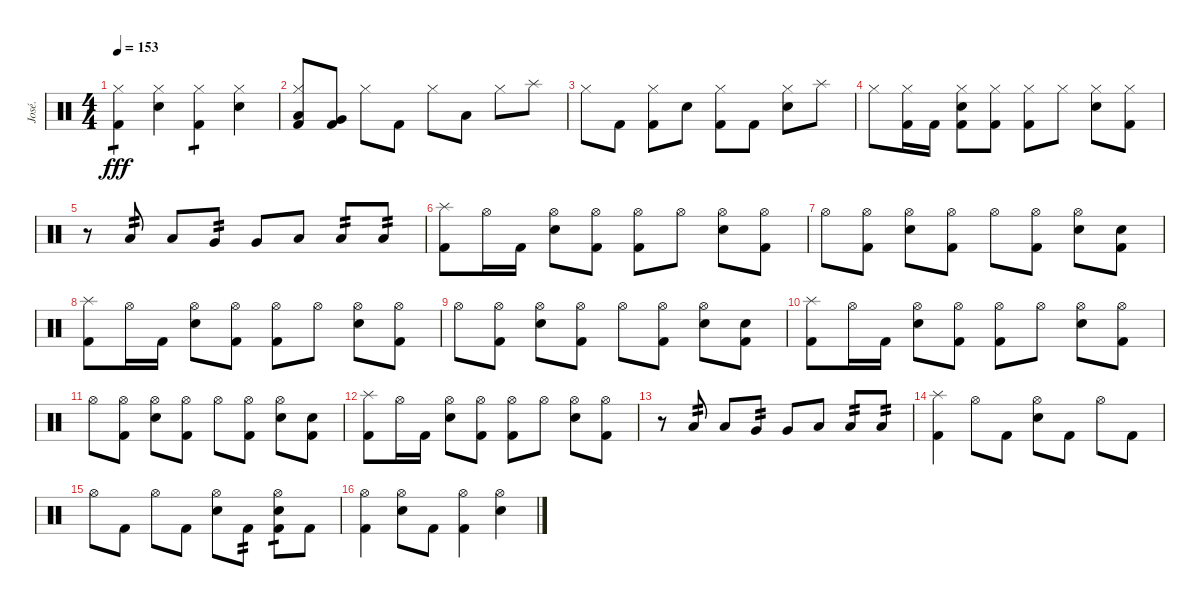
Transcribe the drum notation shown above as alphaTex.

\track ("José." "José.") {instrument percussion}
\staff {score}
\articulation defaults
\ts (4 4)
\tempo 153
\clef neutral
\ks c
("Kick (hit) 2" "Hi-Hat (closed)").4{tp 1 dy fff} ("Snare (hit) 2" "Hi-Hat (closed)").4 ("Kick (hit) 2" "Hi-Hat (closed)").4{tp 1} ("Snare (hit) 2" "Hi-Hat (closed)").4 |
("Kick (hit) 2" "Low Floor Tom (hit)" "Hi-Hat (closed)").8 ("Kick (hit) 2" "Very Low Tom (hit)").8 "Hi-Hat (closed)".8 "Kick (hit) 2".8 "Hi-Hat (closed)".8 "Low Floor Tom (hit)".8 "Hi-Hat (closed)".8 "Splash (hit)".8 |
"Hi-Hat (closed)".8 "Kick (hit) 2".8 ("Kick (hit) 2" "Hi-Hat (closed)").8 "Snare (hit) 2".8 ("Kick (hit) 2" "Hi-Hat (closed)").8 "Kick (hit) 2".8 ("Snare (hit) 2" "Hi-Hat (closed)").8 "Splash (hit)".8 |
"Hi-Hat (closed)".8 ("Kick (hit) 2" "Hi-Hat (closed)").16 "Kick (hit) 2".16 ("Kick (hit) 2" "Snare (hit) 2" "Hi-Hat (closed)").8 ("Kick (hit) 2" "Hi-Hat (closed)").8 ("Kick (hit) 2" "Hi-Hat (closed)").8 "Hi-Hat (closed)".8 ("Snare (hit) 2" "Hi-Hat (closed)").8 ("Kick (hit) 2" "Hi-Hat (closed)").8 |
r.8 "Low Tom (hit)".8{tp 2} "Low Tom (hit)".8 "Very Low Tom (hit)".8{tp 2} "Very Low Tom (hit)".8 "Low Floor Tom (hit)".8 "Low Floor Tom (hit)".8{tp 2} "Low Floor Tom (hit)".8{tp 2} |
("Kick (hit) 2" "Splash (hit)").8 "Hi-Hat (open)".16 "Kick (hit) 2".16 ("Snare (hit) 2" "Hi-Hat (open)").8 ("Kick (hit) 2" "Hi-Hat (open)").8 ("Kick (hit) 2" "Hi-Hat (open)").8 "Hi-Hat (open)".8 ("Snare (hit) 2" "Hi-Hat (open)").8 ("Kick (hit) 2" "Hi-Hat (open)").8 |
"Hi-Hat (open)".8 ("Kick (hit) 2" "Hi-Hat (open)").8 ("Snare (hit) 2" "Hi-Hat (open)").8 ("Kick (hit) 2" "Hi-Hat (open)").8 "Hi-Hat (open)".8 ("Kick (hit) 2" "Hi-Hat (open)").8 ("Snare (hit) 2" "Hi-Hat (open)").8 ("Kick (hit) 2" "Hand Clap (hit)").8 |
("Kick (hit) 2" "Splash (hit)").8 "Hi-Hat (open)".16 "Kick (hit) 2".16 ("Snare (hit) 2" "Hi-Hat (open)").8 ("Kick (hit) 2" "Hi-Hat (open)").8 ("Kick (hit) 2" "Hi-Hat (open)").8 "Hi-Hat (open)".8 ("Snare (hit) 2" "Hi-Hat (open)").8 ("Kick (hit) 2" "Hi-Hat (open)").8 |
"Hi-Hat (open)".8 ("Kick (hit) 2" "Hi-Hat (open)").8 ("Snare (hit) 2" "Hi-Hat (open)").8 ("Kick (hit) 2" "Hi-Hat (open)").8 "Hi-Hat (open)".8 ("Kick (hit) 2" "Hi-Hat (open)").8 ("Snare (hit) 2" "Hi-Hat (open)").8 ("Kick (hit) 2" "Hand Clap (hit)").8 |
("Kick (hit) 2" "Splash (hit)").8 "Hi-Hat (open)".16 "Kick (hit) 2".16 ("Snare (hit) 2" "Hi-Hat (open)").8 ("Kick (hit) 2" "Hi-Hat (open)").8 ("Kick (hit) 2" "Hi-Hat (open)").8 "Hi-Hat (open)".8 ("Snare (hit) 2" "Hi-Hat (open)").8 ("Kick (hit) 2" "Hi-Hat (open)").8 |
"Hi-Hat (open)".8 ("Kick (hit) 2" "Hi-Hat (open)").8 ("Snare (hit) 2" "Hi-Hat (open)").8 ("Kick (hit) 2" "Hi-Hat (open)").8 "Hi-Hat (open)".8 ("Kick (hit) 2" "Hi-Hat (open)").8 ("Snare (hit) 2" "Hi-Hat (open)").8 ("Kick (hit) 2" "Hand Clap (hit)").8 |
("Kick (hit) 2" "Splash (hit)").8 "Hi-Hat (open)".16 "Kick (hit) 2".16 ("Snare (hit) 2" "Hi-Hat (open)").8 ("Kick (hit) 2" "Hi-Hat (open)").8 ("Kick (hit) 2" "Hi-Hat (open)").8 "Hi-Hat (open)".8 ("Snare (hit) 2" "Hi-Hat (open)").8 ("Kick (hit) 2" "Hi-Hat (open)").8 |
r.8 "Low Tom (hit)".8{tp 2} "Low Tom (hit)".8 "Very Low Tom (hit)".8{tp 2} "Very Low Tom (hit)".8 "Low Floor Tom (hit)".8 "Low Floor Tom (hit)".8{tp 2} "Low Floor Tom (hit)".8{tp 2} |
("Kick (hit) 2" "Splash (hit)").4 "Hi-Hat (open)".8 "Kick (hit) 2".8 ("Snare (hit) 2" "Hi-Hat (open)").8 "Kick (hit) 2".8 "Hi-Hat (open)".8 "Kick (hit) 2".8 |
"Hi-Hat (open)".8 "Kick (hit) 2".8 "Hi-Hat (open)".8 "Kick (hit) 2".8 ("Snare (hit) 2" "Hi-Hat (open)").8 "Kick (hit) 2".8{tp 2} ("Kick (hit) 2" "Snare (hit) 2" "Hi-Hat (open)").8{tp 1} "Kick (hit) 2".8 |
("Kick (hit) 2" "Hi-Hat (open)").4 ("Snare (hit) 2" "Hi-Hat (open)").8 "Kick (hit) 2".8 ("Kick (hit) 2" "Hi-Hat (open)").4 ("Snare (hit) 2" "Hi-Hat (open)").4
